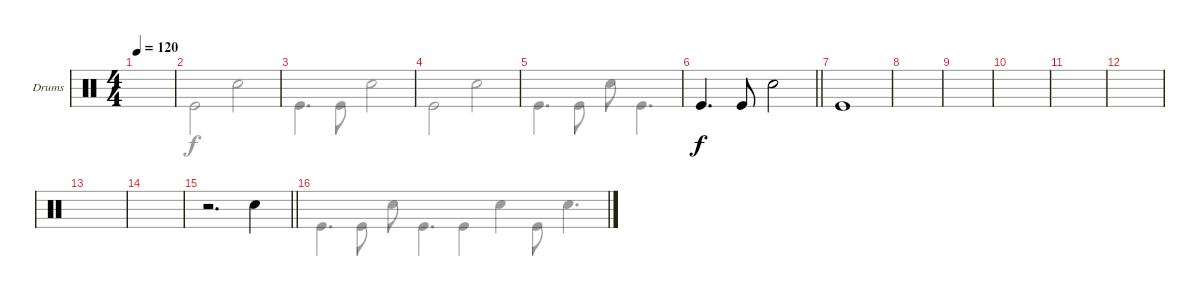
\defaultSystemsLayout 4
\bracketExtendMode groupsimilarinstruments
\firstSystemTrackNameOrientation horizontal
\otherSystemsTrackNameOrientation horizontal
\track ("Drums" "Drums") {instrument percussion}
\staff {score}
\articulation defaults
\voice
\ts (4 4)
\scale
0.5
\tempo 120
\accidentals auto
\clef neutral
\ottava regular
\simile none
\ks aminor
|
\scale
0.5 |
\scale
0.511429 |
\scale
0.488604 |
\scale
0.508571 |
\scale
0.491453
\barLineRight lightlight "Kick (hit)".4{d dy f} "Kick (hit)".8 "Snare (hit) 2".2
|
\scale
0.5 "Kick (hit)".1 |
\scale
0.5 |
\scale
0.507143 |
\scale
0.492877 |
\scale
0.505714 |
\scale
0.494302 |
\scale
0.505714 |
\scale
0.494302 |
\scale
0.488704
\barLineRight lightlight
r.2{d} "Snare (hit) 2".4 |
\scale
0.511333
\voice
\clef neutral
\ottava regular
\simile none
\ks aminor "Kick (hit)".4{d dy f} "Kick (hit)".8 "Snare (hit) 2".8 "Kick (hit)".4{d}
|
"Kick (hit)".2 "Snare (hit) 2".2 |
"Kick (hit)".4{d} "Kick (hit)".8 "Snare (hit) 2".2 |
"Kick (hit)".2 "Snare (hit) 2".2 |
"Kick (hit)".4{d} "Kick (hit)".8 "Snare (hit) 2".8 "Kick (hit)".4{d} |
\barLineRight lightlight
|
|
|
|
|
|
|
|
|
\barLineRight lightlight
|
"Kick (hit)".4 "Snare (hit) 2".4 "Kick (hit)".8 "Snare (hit) 2".4{d}
